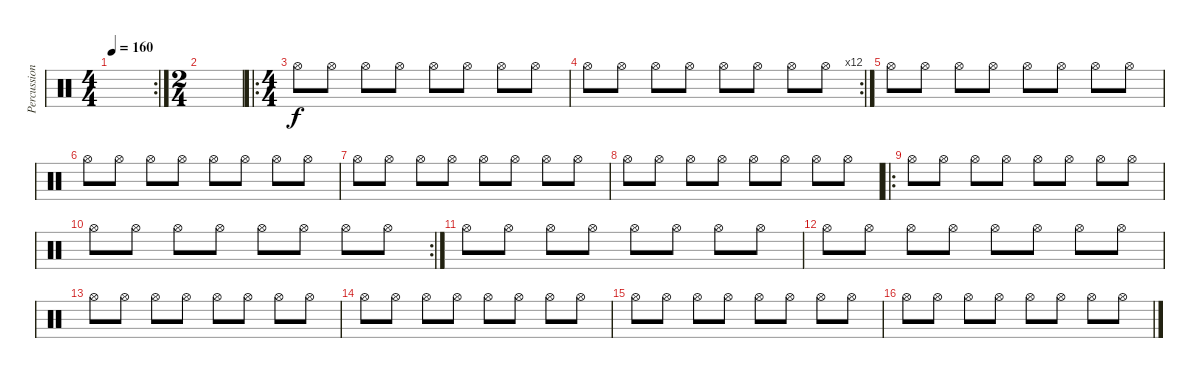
\track ("Percussion" "Percussion") {instrument percussion}
\staff {score}
\articulation defaults
\rc 2
\ts (4 4)
\tempo 160
\clef neutral
\ks c
|
\ts (2 4)
|
\ro
\ts (4 4)
"Hi-Hat (open)".8 "Hi-Hat (open)".8 "Hi-Hat (open)".8 "Hi-Hat (open)".8 "Hi-Hat (open)".8 "Hi-Hat (open)".8 "Hi-Hat (open)".8 "Hi-Hat (open)".8 |
\rc 12 "Hi-Hat (open)".8 "Hi-Hat (open)".8 "Hi-Hat (open)".8 "Hi-Hat (open)".8 "Hi-Hat (open)".8 "Hi-Hat (open)".8 "Hi-Hat (open)".8 "Hi-Hat (open)".8
|
"Hi-Hat (open)".8 "Hi-Hat (open)".8 "Hi-Hat (open)".8 "Hi-Hat (open)".8 "Hi-Hat (open)".8 "Hi-Hat (open)".8 "Hi-Hat (open)".8 "Hi-Hat (open)".8 |
"Hi-Hat (open)".8 "Hi-Hat (open)".8 "Hi-Hat (open)".8 "Hi-Hat (open)".8 "Hi-Hat (open)".8 "Hi-Hat (open)".8 "Hi-Hat (open)".8 "Hi-Hat (open)".8 |
"Hi-Hat (open)".8 "Hi-Hat (open)".8 "Hi-Hat (open)".8 "Hi-Hat (open)".8 "Hi-Hat (open)".8 "Hi-Hat (open)".8 "Hi-Hat (open)".8 "Hi-Hat (open)".8 |
"Hi-Hat (open)".8 "Hi-Hat (open)".8 "Hi-Hat (open)".8 "Hi-Hat (open)".8 "Hi-Hat (open)".8 "Hi-Hat (open)".8 "Hi-Hat (open)".8 "Hi-Hat (open)".8 |
\ro "Hi-Hat (open)".8 "Hi-Hat (open)".8 "Hi-Hat (open)".8 "Hi-Hat (open)".8 "Hi-Hat (open)".8 "Hi-Hat (open)".8 "Hi-Hat (open)".8 "Hi-Hat (open)".8
|
\rc 2 "Hi-Hat (open)".8 "Hi-Hat (open)".8 "Hi-Hat (open)".8 "Hi-Hat (open)".8 "Hi-Hat (open)".8 "Hi-Hat (open)".8 "Hi-Hat (open)".8 "Hi-Hat (open)".8
|
"Hi-Hat (open)".8 "Hi-Hat (open)".8 "Hi-Hat (open)".8 "Hi-Hat (open)".8 "Hi-Hat (open)".8 "Hi-Hat (open)".8 "Hi-Hat (open)".8 "Hi-Hat (open)".8 |
"Hi-Hat (open)".8 "Hi-Hat (open)".8 "Hi-Hat (open)".8 "Hi-Hat (open)".8 "Hi-Hat (open)".8 "Hi-Hat (open)".8 "Hi-Hat (open)".8 "Hi-Hat (open)".8 |
"Hi-Hat (open)".8 "Hi-Hat (open)".8 "Hi-Hat (open)".8 "Hi-Hat (open)".8 "Hi-Hat (open)".8 "Hi-Hat (open)".8 "Hi-Hat (open)".8 "Hi-Hat (open)".8 |
"Hi-Hat (open)".8 "Hi-Hat (open)".8 "Hi-Hat (open)".8 "Hi-Hat (open)".8 "Hi-Hat (open)".8 "Hi-Hat (open)".8 "Hi-Hat (open)".8 "Hi-Hat (open)".8 |
"Hi-Hat (open)".8 "Hi-Hat (open)".8 "Hi-Hat (open)".8 "Hi-Hat (open)".8 "Hi-Hat (open)".8 "Hi-Hat (open)".8 "Hi-Hat (open)".8 "Hi-Hat (open)".8 |
"Hi-Hat (open)".8 "Hi-Hat (open)".8 "Hi-Hat (open)".8 "Hi-Hat (open)".8 "Hi-Hat (open)".8 "Hi-Hat (open)".8 "Hi-Hat (open)".8 "Hi-Hat (open)".8
